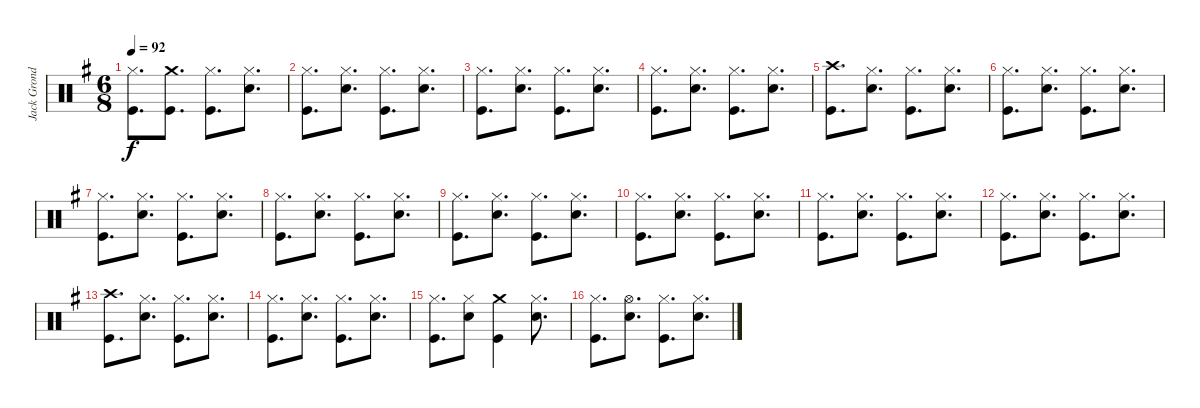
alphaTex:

\track ("Jack Grondin Drums" "Jack Grond") {instrument percussion}
\staff {score}
\articulation defaults
\ts (6 8)
\tempo 92
\clef neutral
\ks g
("Hi-Hat (closed)" "Kick (hit)").8{d dy f} ("Crash medium (hit)" "Kick (hit)").8{d} ("Hi-Hat (closed)" "Kick (hit)").8{d} ("Hi-Hat (closed)" "Snare (hit) 2").8{d} |
("Hi-Hat (closed)" "Kick (hit)").8{d} ("Hi-Hat (closed)" "Snare (hit) 2").8{d} ("Hi-Hat (closed)" "Kick (hit)").8{d} ("Hi-Hat (closed)" "Snare (hit) 2").8{d} |
("Hi-Hat (closed)" "Kick (hit)").8{d} ("Hi-Hat (closed)" "Snare (hit) 2").8{d} ("Hi-Hat (closed)" "Kick (hit)").8{d} ("Hi-Hat (closed)" "Snare (hit) 2").8{d} |
("Hi-Hat (closed)" "Kick (hit)").8{d} ("Hi-Hat (closed)" "Snare (hit) 2").8{d} ("Hi-Hat (closed)" "Kick (hit)").8{d} ("Hi-Hat (closed)" "Snare (hit) 2").8{d} |
("Crash high (hit)" "Kick (hit)").8{d} ("Hi-Hat (closed)" "Snare (hit) 2").8{d} ("Hi-Hat (closed)" "Kick (hit)").8{d} ("Hi-Hat (closed)" "Snare (hit) 2").8{d} |
("Hi-Hat (closed)" "Kick (hit)").8{d} ("Hi-Hat (closed)" "Snare (hit) 2").8{d} ("Hi-Hat (closed)" "Kick (hit)").8{d} ("Hi-Hat (closed)" "Snare (hit) 2").8{d} |
("Hi-Hat (closed)" "Kick (hit)").8{d} ("Hi-Hat (closed)" "Snare (hit) 2").8{d} ("Hi-Hat (closed)" "Kick (hit)").8{d} ("Hi-Hat (closed)" "Snare (hit) 2").8{d} |
("Hi-Hat (closed)" "Kick (hit)").8{d} ("Hi-Hat (closed)" "Snare (hit) 2").8{d} ("Hi-Hat (closed)" "Kick (hit)").8{d} ("Hi-Hat (closed)" "Snare (hit) 2").8{d} |
("Hi-Hat (closed)" "Kick (hit)").8{d} ("Hi-Hat (closed)" "Snare (hit) 2").8{d} ("Hi-Hat (closed)" "Kick (hit)").8{d} ("Hi-Hat (closed)" "Snare (hit) 2").8{d} |
("Hi-Hat (closed)" "Kick (hit)").8{d} ("Hi-Hat (closed)" "Snare (hit) 2").8{d} ("Hi-Hat (closed)" "Kick (hit)").8{d} ("Hi-Hat (closed)" "Snare (hit) 2").8{d} |
("Hi-Hat (closed)" "Kick (hit)").8{d} ("Hi-Hat (closed)" "Snare (hit) 2").8{d} ("Hi-Hat (closed)" "Kick (hit)").8{d} ("Hi-Hat (closed)" "Snare (hit) 2").8{d} |
("Hi-Hat (closed)" "Kick (hit)").8{d} ("Hi-Hat (closed)" "Snare (hit) 2").8{d} ("Hi-Hat (closed)" "Kick (hit)").8{d} ("Hi-Hat (closed)" "Snare (hit) 2").8{d} |
("Crash high (hit)" "Kick (hit)").8{d} ("Hi-Hat (closed)" "Snare (hit) 2").8{d} ("Hi-Hat (closed)" "Kick (hit)").8{d} ("Hi-Hat (closed)" "Snare (hit) 2").8{d} |
("Hi-Hat (closed)" "Kick (hit)").8{d} ("Hi-Hat (closed)" "Snare (hit) 2").8{d} ("Hi-Hat (closed)" "Kick (hit)").8{d} ("Hi-Hat (closed)" "Snare (hit) 2").8{d} |
("Hi-Hat (closed)" "Kick (hit)").8{d} ("Hi-Hat (closed)" "Snare (hit) 2").8 ("Crash medium (hit)" "Kick (hit)").4 ("Hi-Hat (closed)" "Snare (hit) 2").8{d} |
("Hi-Hat (closed)" "Kick (hit)").8{d} ("Hi-Hat (open)" "Snare (hit) 2").8{d} ("Hi-Hat (closed)" "Kick (hit)").8{d} ("Hi-Hat (closed)" "Snare (hit) 2").8{d}
